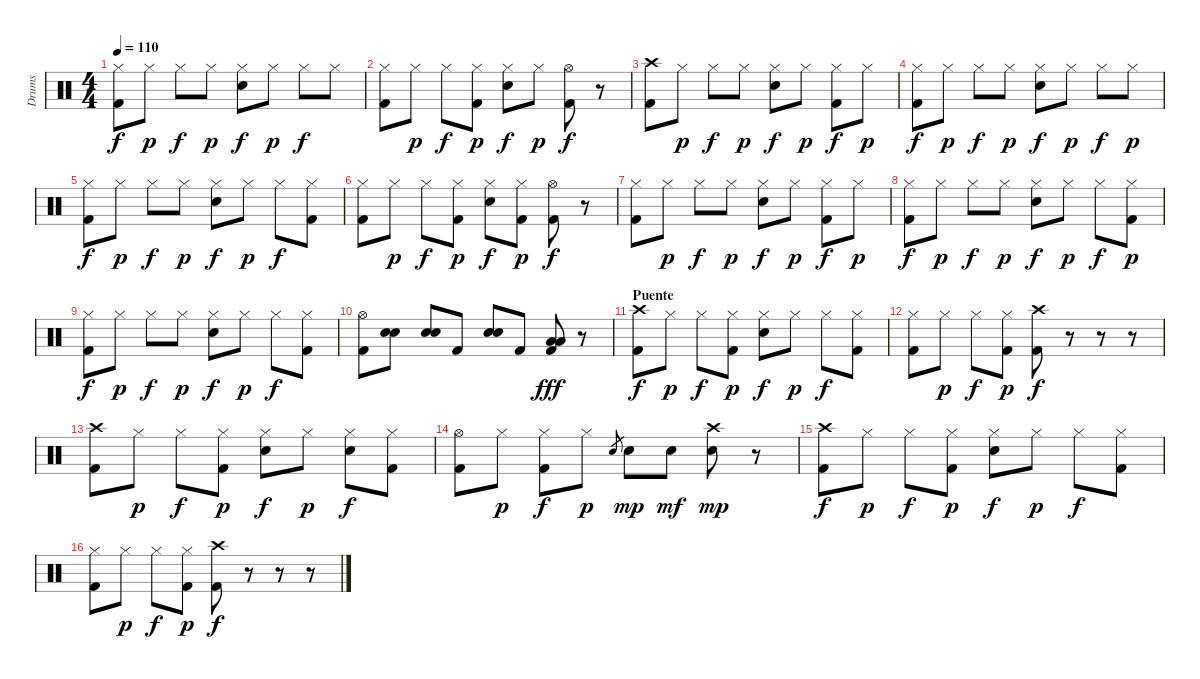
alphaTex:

\track ("Drums" "Drums") {instrument percussion}
\staff {score}
\articulation defaults
\ts (4 4)
\tempo 110
\clef neutral
\ks c
("Hi-Hat (closed)" "Kick (hit) 2").8{dy f} "Hi-Hat (closed)".8{dy p} "Hi-Hat (closed)".8{dy f} "Hi-Hat (closed)".8{dy p} ("Hi-Hat (closed)" "Snare (hit) 2").8{dy f} "Hi-Hat (closed)".8{dy p} "Hi-Hat (closed)".8{dy f} "Hi-Hat (closed)".8 |
("Hi-Hat (closed)" "Kick (hit) 2").8 "Hi-Hat (closed)".8{dy p} "Hi-Hat (closed)".8{dy f} ("Hi-Hat (closed)" "Kick (hit) 2").8{dy p} ("Hi-Hat (closed)" "Snare (hit) 2").8{dy f} "Hi-Hat (closed)".8{dy p} ("Hi-Hat (open)" "Kick (hit) 2").8{dy f} r.8 |
("Crash high (hit)" "Kick (hit) 2").8 "Hi-Hat (closed)".8{dy p} "Hi-Hat (closed)".8{dy f} "Hi-Hat (closed)".8{dy p} ("Hi-Hat (closed)" "Snare (hit) 2").8{dy f} "Hi-Hat (closed)".8{dy p} ("Hi-Hat (closed)" "Kick (hit) 2").8{dy f} "Hi-Hat (closed)".8{dy p} |
("Hi-Hat (closed)" "Kick (hit) 2").8{dy f} "Hi-Hat (closed)".8{dy p} "Hi-Hat (closed)".8{dy f} "Hi-Hat (closed)".8{dy p} ("Hi-Hat (closed)" "Snare (hit) 2").8{dy f} "Hi-Hat (closed)".8{dy p} "Hi-Hat (closed)".8{dy f} "Hi-Hat (closed)".8{dy p} |
("Hi-Hat (closed)" "Kick (hit) 2").8{dy f} "Hi-Hat (closed)".8{dy p} "Hi-Hat (closed)".8{dy f} "Hi-Hat (closed)".8{dy p} ("Hi-Hat (closed)" "Snare (hit) 2").8{dy f} "Hi-Hat (closed)".8{dy p} "Hi-Hat (closed)".8{dy f} ("Hi-Hat (closed)" "Kick (hit) 2").8 |
("Hi-Hat (closed)" "Kick (hit) 2").8 "Hi-Hat (closed)".8{dy p} "Hi-Hat (closed)".8{dy f} ("Hi-Hat (closed)" "Kick (hit) 2").8{dy p} ("Hi-Hat (closed)" "Snare (hit) 2").8{dy f} ("Hi-Hat (closed)" "Kick (hit) 2").8{dy p} ("Hi-Hat (open)" "Kick (hit) 2").8{dy f} r.8 |
("Hi-Hat (closed)" "Kick (hit) 2").8 "Hi-Hat (closed)".8{dy p} "Hi-Hat (closed)".8{dy f} "Hi-Hat (closed)".8{dy p} ("Hi-Hat (closed)" "Snare (hit) 2").8{dy f} "Hi-Hat (closed)".8{dy p} ("Hi-Hat (closed)" "Kick (hit) 2").8{dy f} "Hi-Hat (closed)".8{dy p} |
("Hi-Hat (closed)" "Kick (hit) 2").8{dy f} "Hi-Hat (closed)".8{dy p} "Hi-Hat (closed)".8{dy f} "Hi-Hat (closed)".8{dy p} ("Hi-Hat (closed)" "Snare (hit) 2").8{dy f} "Hi-Hat (closed)".8{dy p} "Hi-Hat (closed)".8{dy f} ("Hi-Hat (closed)" "Kick (hit) 2").8{dy p} |
("Hi-Hat (closed)" "Kick (hit) 2").8{dy f} "Hi-Hat (closed)".8{dy p} "Hi-Hat (closed)".8{dy f} "Hi-Hat (closed)".8{dy p} ("Hi-Hat (closed)" "Snare (hit) 2").8{dy f} "Hi-Hat (closed)".8{dy p} "Hi-Hat (closed)".8{dy f} ("Hi-Hat (closed)" "Kick (hit) 2").8 |
("Hi-Hat (open)" "Kick (hit) 2").8 ("Snare (hit) 2" "Snare (hit) 2").8{bd 120} ("Snare (hit) 2" "Snare (hit) 2").8{bd 120} "Kick (hit) 2".8 ("Snare (hit) 2" "Snare (hit) 2").8{bd 120} "Kick (hit) 2".8 ("Low Floor Tom (hit)" "Low Floor Tom (hit)" "Kick (hit) 2").8{bd 120 dy fff} r.8 |
\section ("" "Puente")
("Crash high (hit)" "Kick (hit) 2").8{dy f} "Hi-Hat (closed)".8{dy p} "Hi-Hat (closed)".8{dy f} ("Hi-Hat (closed)" "Kick (hit) 2").8{dy p} ("Hi-Hat (closed)" "Snare (hit) 2").8{dy f} "Hi-Hat (closed)".8{dy p} "Hi-Hat (closed)".8{dy f} ("Hi-Hat (closed)" "Kick (hit) 2").8 |
("Hi-Hat (closed)" "Kick (hit) 2").8 "Hi-Hat (closed)".8{dy p} "Hi-Hat (closed)".8{dy f} ("Hi-Hat (closed)" "Kick (hit) 2").8{dy p} ("Crash high (hit)" "Kick (hit) 2").8{dy f} r.8 r.8 r.8 |
("Crash high (hit)" "Kick (hit) 2").8 "Hi-Hat (closed)".8{dy p} "Hi-Hat (closed)".8{dy f} ("Hi-Hat (closed)" "Kick (hit) 2").8{dy p} ("Hi-Hat (closed)" "Snare (hit) 2").8{dy f} "Hi-Hat (closed)".8{dy p} ("Hi-Hat (closed)" "Snare (hit) 2").8{dy f} ("Hi-Hat (closed)" "Kick (hit) 2").8 |
("Hi-Hat (open)" "Kick (hit) 2").8 "Hi-Hat (closed)".8{dy p} ("Hi-Hat (closed)" "Kick (hit) 2").8{dy f} "Hi-Hat (closed)".8{dy p} "Snare (hit) 2".8{gr} "Snare (hit) 2".8{dy mp} "Snare (hit) 2".8{dy mf} ("Crash high (hit)" "Snare (hit) 2").8{dy mp} r.8 |
("Crash high (hit)" "Kick (hit) 2").8{dy f} "Hi-Hat (closed)".8{dy p} "Hi-Hat (closed)".8{dy f} ("Hi-Hat (closed)" "Kick (hit) 2").8{dy p} ("Hi-Hat (closed)" "Snare (hit) 2").8{dy f} "Hi-Hat (closed)".8{dy p} "Hi-Hat (closed)".8{dy f} ("Hi-Hat (closed)" "Kick (hit) 2").8 |
("Hi-Hat (closed)" "Kick (hit) 2").8 "Hi-Hat (closed)".8{dy p} "Hi-Hat (closed)".8{dy f} ("Hi-Hat (closed)" "Kick (hit) 2").8{dy p} ("Crash high (hit)" "Kick (hit) 2").8{dy f} r.8 r.8 r.8
